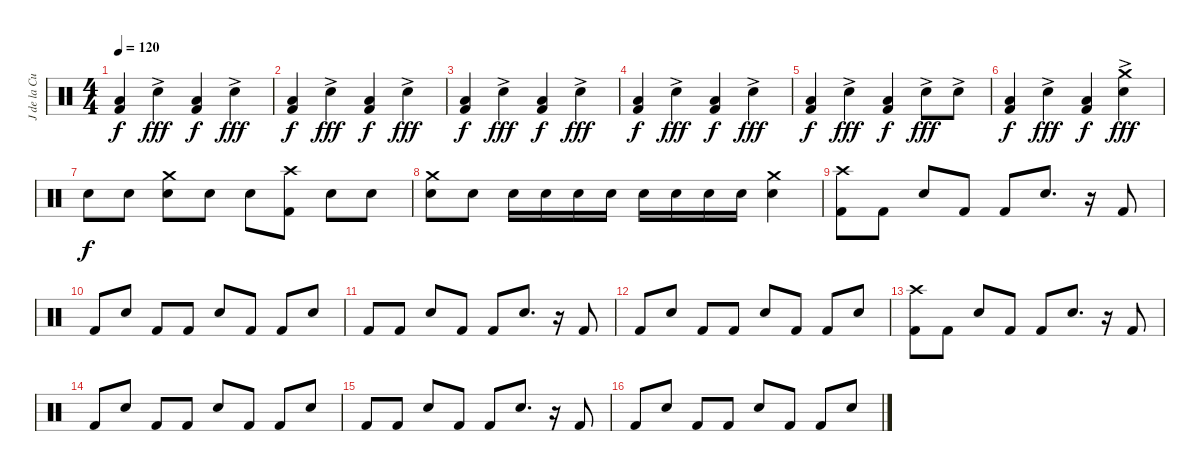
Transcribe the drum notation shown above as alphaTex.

\track ("J de la Cueva" "J de la Cu") {instrument percussion}
\staff {score}
\articulation defaults
\ts (4 4)
\tempo 120
\clef neutral
\ks c
("Low Tom (hit)" "Kick (hit) 2").4{dy f} "Snare (hit) 2"{ac}.4{dy fff} ("Low Tom (hit)" "Kick (hit) 2").4{dy f} "Snare (hit) 2"{ac}.4{dy fff} |
("Low Tom (hit)" "Kick (hit) 2").4{dy f} "Snare (hit) 2"{ac}.4{dy fff} ("Low Tom (hit)" "Kick (hit) 2").4{dy f} "Snare (hit) 2"{ac}.4{dy fff} |
("Low Tom (hit)" "Kick (hit) 2").4{dy f} "Snare (hit) 2"{ac}.4{dy fff} ("Low Tom (hit)" "Kick (hit) 2").4{dy f} "Snare (hit) 2"{ac}.4{dy fff} |
("Low Tom (hit)" "Kick (hit) 2").4{dy f} "Snare (hit) 2"{ac}.4{dy fff} ("Low Tom (hit)" "Kick (hit) 2").4{dy f} "Snare (hit) 2"{ac}.4{dy fff} |
("Low Tom (hit)" "Kick (hit) 2").4{dy f} "Snare (hit) 2"{ac}.4{dy fff} ("Low Tom (hit)" "Kick (hit) 2").4{dy f} "Snare (hit) 2"{ac}.8{dy fff} "Electric Snare (hit)"{ac}.8 |
("Low Tom (hit)" "Kick (hit) 2").4{dy f} "Snare (hit) 2"{ac}.4{dy fff} ("Low Tom (hit)" "Kick (hit) 2").4{dy f} ("Crash medium (hit)" "Snare (hit) 2"{ac}).4{dy fff} |
"Snare (hit) 2".8{dy f} "Snare (hit) 2".8 ("Crash medium (hit)" "Snare (hit) 2").8 "Snare (hit) 2".8 "Snare (hit) 2".8 ("Crash high (hit)" "Kick (hit) 2").8 "Snare (hit) 2".8 "Snare (hit) 2".8 |
("Crash medium (hit)" "Snare (hit) 2").8 "Snare (hit) 2".8 "Snare (hit) 2".16 "Snare (hit) 2".16 "Snare (hit) 2".16 "Snare (hit) 2".16 "Snare (hit) 2".16 "Snare (hit) 2".16 "Electric Snare (hit)".16 "Electric Snare (hit)".16 ("Crash medium (hit)" "Snare (hit) 2").4 |
("Crash high (hit)" "Kick (hit) 2").8 "Kick (hit) 2".8 "Snare (hit) 2".8 "Kick (hit) 2".8 "Kick (hit) 2".8 "Snare (hit) 2".8{d} r.16 "Kick (hit) 2".8 |
"Kick (hit) 2".8 "Snare (hit) 2".8 "Kick (hit) 2".8 "Kick (hit) 2".8 "Snare (hit) 2".8 "Kick (hit) 2".8 "Kick (hit) 2".8 "Snare (hit) 2".8 |
"Kick (hit) 2".8 "Kick (hit) 2".8 "Snare (hit) 2".8 "Kick (hit) 2".8 "Kick (hit) 2".8 "Snare (hit) 2".8{d} r.16 "Kick (hit) 2".8 |
"Kick (hit) 2".8 "Snare (hit) 2".8 "Kick (hit) 2".8 "Kick (hit) 2".8 "Snare (hit) 2".8 "Kick (hit) 2".8 "Kick (hit) 2".8 "Snare (hit) 2".8 |
("Crash high (hit)" "Kick (hit) 2").8 "Kick (hit) 2".8 "Snare (hit) 2".8 "Kick (hit) 2".8 "Kick (hit) 2".8 "Snare (hit) 2".8{d} r.16 "Kick (hit) 2".8 |
"Kick (hit) 2".8 "Snare (hit) 2".8 "Kick (hit) 2".8 "Kick (hit) 2".8 "Snare (hit) 2".8 "Kick (hit) 2".8 "Kick (hit) 2".8 "Snare (hit) 2".8 |
"Kick (hit) 2".8 "Kick (hit) 2".8 "Snare (hit) 2".8 "Kick (hit) 2".8 "Kick (hit) 2".8 "Snare (hit) 2".8{d} r.16 "Kick (hit) 2".8 |
"Kick (hit) 2".8 "Snare (hit) 2".8 "Kick (hit) 2".8 "Kick (hit) 2".8 "Snare (hit) 2".8 "Kick (hit) 2".8 "Kick (hit) 2".8 "Snare (hit) 2".8
